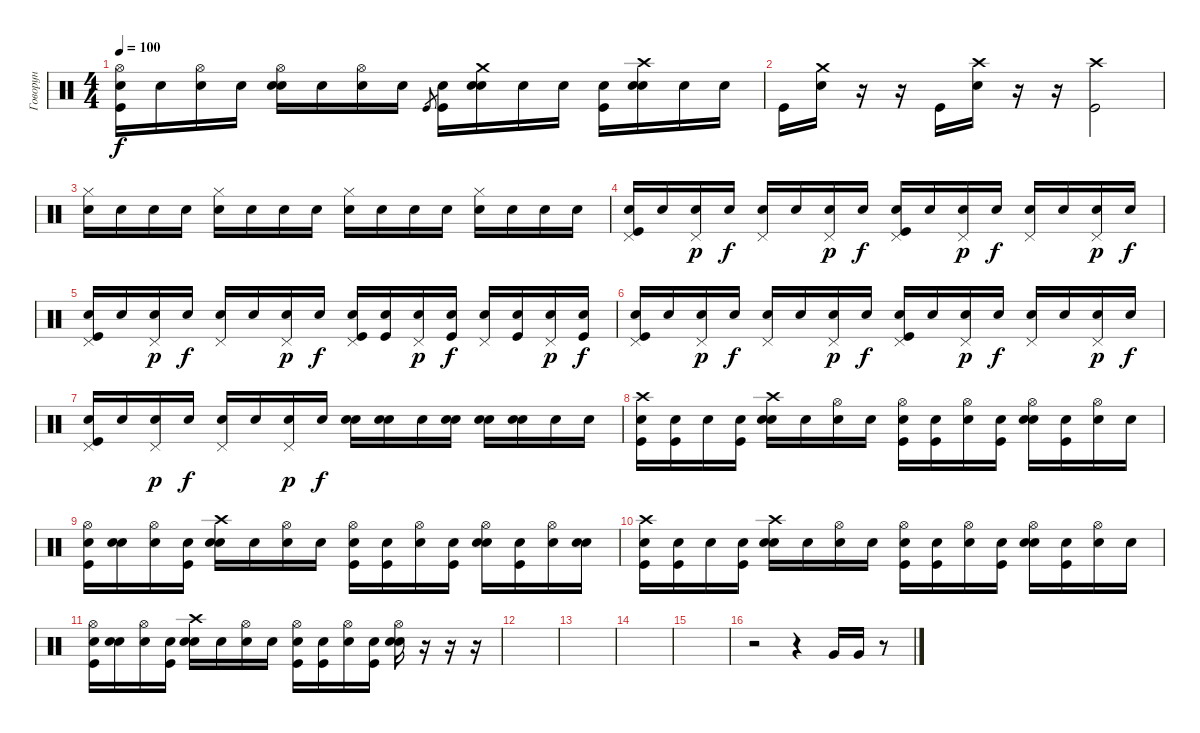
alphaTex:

\track ("Говорун" "Говорун") {instrument percussion}
\staff {score}
\articulation defaults
\ts (4 4)
\tempo 100
\clef neutral
\ks c
("Kick (hit)" "Hi-Hat (open)" "Snare (hit)"{x}).16{dy f} "Snare (hit)"{x}.16 ("Hi-Hat (open)" "Snare (hit)"{x}).16 "Snare (hit)"{x}.16 ("Snare (hit) 2" "Hi-Hat (open)" "Snare (hit)"{x}).16 "Snare (hit)"{x}.16 ("Hi-Hat (open)" "Snare (hit)"{x}).16 "Snare (hit)"{x}.16 "Kick (hit)".8{gr} ("Kick (hit)" "Snare (hit)"{x}).16 ("Crash medium (hit)" "Snare (hit) 2" "Snare (hit)"{x}).16 "Snare (hit)"{x}.16 "Snare (hit)"{x}.16 ("Kick (hit)" "Snare (hit)"{x}).16 ("Crash high (hit)" "Snare (hit) 2" "Snare (hit)"{x}).16 "Snare (hit)"{x}.16 "Snare (hit)"{x}.16 |
"Kick (hit)".16 ("Crash medium (hit)" "Snare (hit) 2").16 r.16 r.16 "Kick (hit)".16 ("Crash high (hit)" "Snare (hit) 2").16 r.16 r.16 ("Crash high (hit)" "Kick (hit)").2 |
("Hi-Hat (closed)" "Snare (hit)"{x}).16 "Snare (hit)"{x}.16 "Snare (hit)"{x}.16 "Snare (hit)"{x}.16 ("Hi-Hat (closed)" "Snare (hit)"{x}).16 "Snare (hit)"{x}.16 "Snare (hit)"{x}.16 "Snare (hit)"{x}.16 ("Hi-Hat (closed)" "Snare (hit)"{x}).16 "Snare (hit)"{x}.16 "Snare (hit)"{x}.16 "Snare (hit)"{x}.16 ("Hi-Hat (closed)" "Snare (hit)"{x}).16 "Snare (hit)"{x}.16 "Snare (hit)"{x}.16 "Snare (hit)"{x}.16 |
("Pedal Hi-Hat (hit)" "Kick (hit)" "Snare (hit)"{x}).16 "Snare (hit)"{x}.16 ("Pedal Hi-Hat (hit)" "Snare (hit)"{x}).16{dy p} "Snare (hit)"{x}.16{dy f} ("Pedal Hi-Hat (hit)" "Snare (hit)"{x}).16 "Snare (hit)"{x}.16 ("Pedal Hi-Hat (hit)" "Snare (hit)"{x}).16{dy p} "Snare (hit)"{x}.16{dy f} ("Pedal Hi-Hat (hit)" "Kick (hit)" "Snare (hit)"{x}).16 "Snare (hit)"{x}.16 ("Pedal Hi-Hat (hit)" "Snare (hit)"{x}).16{dy p} "Snare (hit)"{x}.16{dy f} ("Pedal Hi-Hat (hit)" "Snare (hit)"{x}).16 "Snare (hit)"{x}.16 ("Pedal Hi-Hat (hit)" "Snare (hit)"{x}).16{dy p} "Snare (hit)"{x}.16{dy f} |
("Pedal Hi-Hat (hit)" "Kick (hit)" "Snare (hit)"{x}).16 "Snare (hit)"{x}.16 ("Pedal Hi-Hat (hit)" "Snare (hit)"{x}).16{dy p} "Snare (hit)"{x}.16{dy f} ("Pedal Hi-Hat (hit)" "Snare (hit)"{x}).16 "Snare (hit)"{x}.16 ("Pedal Hi-Hat (hit)" "Snare (hit)"{x}).16{dy p} "Snare (hit)"{x}.16{dy f} ("Pedal Hi-Hat (hit)" "Kick (hit)" "Snare (hit)"{x}).16 ("Kick (hit)" "Snare (hit)"{x}).16 ("Pedal Hi-Hat (hit)" "Snare (hit)"{x}).16{dy p} ("Kick (hit)" "Snare (hit)"{x}).16{dy f} ("Pedal Hi-Hat (hit)" "Snare (hit)"{x}).16 ("Kick (hit)" "Snare (hit)"{x}).16 ("Pedal Hi-Hat (hit)" "Snare (hit)"{x}).16{dy p} ("Kick (hit)" "Snare (hit)"{x}).16{dy f} |
("Pedal Hi-Hat (hit)" "Kick (hit)" "Snare (hit)"{x}).16 "Snare (hit)"{x}.16 ("Pedal Hi-Hat (hit)" "Snare (hit)"{x}).16{dy p} "Snare (hit)"{x}.16{dy f} ("Pedal Hi-Hat (hit)" "Snare (hit)"{x}).16 "Snare (hit)"{x}.16 ("Pedal Hi-Hat (hit)" "Snare (hit)"{x}).16{dy p} "Snare (hit)"{x}.16{dy f} ("Pedal Hi-Hat (hit)" "Kick (hit)" "Snare (hit)"{x}).16 "Snare (hit)"{x}.16 ("Pedal Hi-Hat (hit)" "Snare (hit)"{x}).16{dy p} "Snare (hit)"{x}.16{dy f} ("Pedal Hi-Hat (hit)" "Snare (hit)"{x}).16 "Snare (hit)"{x}.16 ("Pedal Hi-Hat (hit)" "Snare (hit)"{x}).16{dy p} "Snare (hit)"{x}.16{dy f} |
("Pedal Hi-Hat (hit)" "Kick (hit)" "Snare (hit)"{x}).16 "Snare (hit)"{x}.16 ("Pedal Hi-Hat (hit)" "Snare (hit)"{x}).16{dy p} "Snare (hit)"{x}.16{dy f} ("Pedal Hi-Hat (hit)" "Snare (hit)"{x}).16 "Snare (hit)"{x}.16 ("Pedal Hi-Hat (hit)" "Snare (hit)"{x}).16{dy p} "Snare (hit)"{x}.16{dy f} ("Electric Snare (hit)" "Snare (hit)"{x}).16 ("Electric Snare (hit)" "Snare (hit)"{x}).16 "Snare (hit)"{x}.16 ("Electric Snare (hit)" "Snare (hit)"{x}).16 ("Electric Snare (hit)" "Snare (hit)"{x}).16 ("Electric Snare (hit)" "Snare (hit)"{x}).16 "Snare (hit)"{x}.16 "Snare (hit)"{x}.16 |
("Crash high (hit)" "Kick (hit)" "Snare (hit)"{x}).16 ("Kick (hit)" "Snare (hit)"{x}).16 "Snare (hit)"{x}.16 ("Kick (hit)" "Snare (hit)"{x}).16 ("Crash high (hit)" "Snare (hit) 2" "Snare (hit)"{x}).16 "Snare (hit)"{x}.16 ("Hi-Hat (open)" "Snare (hit)"{x}).16 "Snare (hit)"{x}.16 ("Kick (hit)" "Hi-Hat (open)" "Snare (hit)"{x}).16 ("Kick (hit)" "Snare (hit)"{x}).16 ("Hi-Hat (open)" "Snare (hit)"{x}).16 ("Kick (hit)" "Snare (hit)"{x}).16 ("Snare (hit) 2" "Hi-Hat (open)" "Snare (hit)"{x}).16 ("Kick (hit)" "Snare (hit)"{x}).16 ("Hi-Hat (open)" "Snare (hit)"{x}).16 "Snare (hit)"{x}.16 |
("Kick (hit)" "Hi-Hat (open)" "Snare (hit)"{x}).16 ("Snare (hit) 2" "Snare (hit)"{x}).16 ("Hi-Hat (open)" "Snare (hit)"{x}).16 ("Kick (hit)" "Snare (hit)"{x}).16 ("Crash high (hit)" "Snare (hit) 2" "Snare (hit)"{x}).16 "Snare (hit)"{x}.16 ("Hi-Hat (open)" "Snare (hit)"{x}).16 "Snare (hit)"{x}.16 ("Kick (hit)" "Hi-Hat (open)" "Snare (hit)"{x}).16 ("Kick (hit)" "Snare (hit)"{x}).16 ("Hi-Hat (open)" "Snare (hit)"{x}).16 ("Kick (hit)" "Snare (hit)"{x}).16 ("Snare (hit) 2" "Hi-Hat (open)" "Snare (hit)"{x}).16 ("Kick (hit)" "Snare (hit)"{x}).16 ("Hi-Hat (open)" "Snare (hit)"{x}).16 ("Snare (hit) 2" "Snare (hit)"{x}).16 |
("Crash high (hit)" "Kick (hit)" "Snare (hit)"{x}).16 ("Kick (hit)" "Snare (hit)"{x}).16 "Snare (hit)"{x}.16 ("Kick (hit)" "Snare (hit)"{x}).16 ("Crash high (hit)" "Snare (hit) 2" "Snare (hit)"{x}).16 "Snare (hit)"{x}.16 ("Hi-Hat (open)" "Snare (hit)"{x}).16 "Snare (hit)"{x}.16 ("Kick (hit)" "Hi-Hat (open)" "Snare (hit)"{x}).16 ("Kick (hit)" "Snare (hit)"{x}).16 ("Hi-Hat (open)" "Snare (hit)"{x}).16 ("Kick (hit)" "Snare (hit)"{x}).16 ("Snare (hit) 2" "Hi-Hat (open)" "Snare (hit)"{x}).16 ("Kick (hit)" "Snare (hit)"{x}).16 ("Hi-Hat (open)" "Snare (hit)"{x}).16 "Snare (hit)"{x}.16 |
("Kick (hit)" "Hi-Hat (open)" "Snare (hit)"{x}).16 ("Snare (hit) 2" "Snare (hit)"{x}).16 ("Hi-Hat (open)" "Snare (hit)"{x}).16 ("Kick (hit)" "Snare (hit)"{x}).16 ("Crash high (hit)" "Snare (hit) 2" "Snare (hit)"{x}).16 "Snare (hit)"{x}.16 ("Hi-Hat (open)" "Snare (hit)"{x}).16 "Snare (hit)"{x}.16 ("Kick (hit)" "Hi-Hat (open)" "Snare (hit)"{x}).16 ("Kick (hit)" "Snare (hit)"{x}).16 ("Hi-Hat (open)" "Snare (hit)"{x}).16 ("Kick (hit)" "Snare (hit)"{x}).16 ("Snare (hit) 2" "Hi-Hat (open)" "Snare (hit)"{x}).16 r.16 r.16 r.16 |
|
|
|
|
r.2 r.4 "Very Low Tom (hit)".16 "Very Low Tom (hit)".16 r.8
